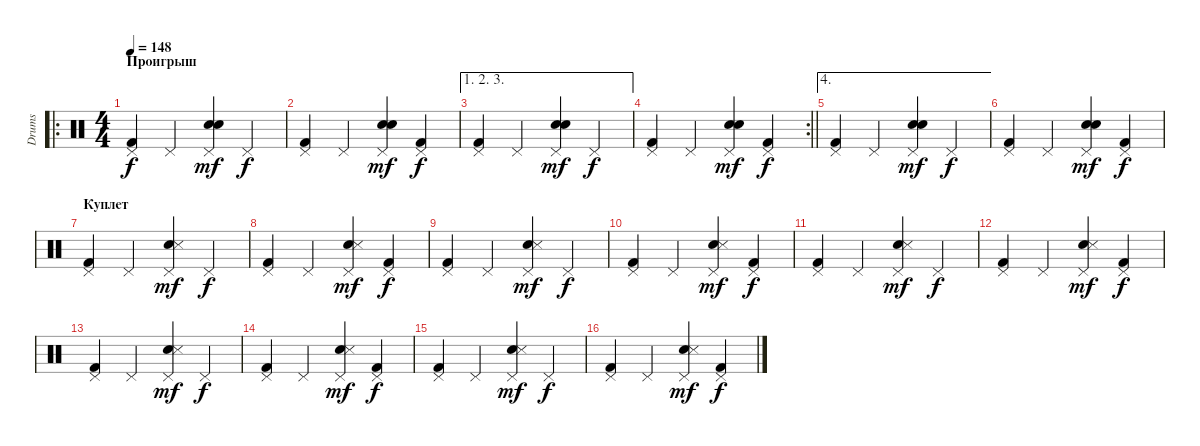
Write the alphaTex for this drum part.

\track ("Drums" "Drums") {instrument percussion}
\staff {score}
\articulation defaults
\ro
\ts (4 4)
\section ("" "Проигрыш")
\tempo 148
\clef neutral
\ks c
("Pedal Hi-Hat (hit)" "Kick (hit) 2").4{dy f} "Pedal Hi-Hat (hit)".4 ("Pedal Hi-Hat (hit)" "Snare (hit) 2" "Electric Snare (hit)").4{dy mf} "Pedal Hi-Hat (hit)".4{dy f} |
("Pedal Hi-Hat (hit)" "Kick (hit) 2").4 "Pedal Hi-Hat (hit)".4 ("Pedal Hi-Hat (hit)" "Snare (hit) 2" "Electric Snare (hit)").4{dy mf} ("Pedal Hi-Hat (hit)" "Kick (hit) 2").4{dy f} |
\ae (1 2 3)
("Pedal Hi-Hat (hit)" "Kick (hit) 2").4 "Pedal Hi-Hat (hit)".4 ("Pedal Hi-Hat (hit)" "Snare (hit) 2" "Electric Snare (hit)").4{dy mf} "Pedal Hi-Hat (hit)".4{dy f} |
\rc 2
\barLineRight lightlight
("Pedal Hi-Hat (hit)" "Kick (hit) 2").4 "Pedal Hi-Hat (hit)".4 ("Pedal Hi-Hat (hit)" "Snare (hit) 2" "Electric Snare (hit)").4{dy mf} ("Pedal Hi-Hat (hit)" "Kick (hit) 2").4{dy f} |
\ae 4
("Pedal Hi-Hat (hit)" "Kick (hit) 2").4 "Pedal Hi-Hat (hit)".4 ("Pedal Hi-Hat (hit)" "Snare (hit) 2" "Electric Snare (hit)").4{dy mf} "Pedal Hi-Hat (hit)".4{dy f} |
("Pedal Hi-Hat (hit)" "Kick (hit) 2").4 "Pedal Hi-Hat (hit)".4 ("Pedal Hi-Hat (hit)" "Snare (hit) 2" "Electric Snare (hit)").4{dy mf} ("Pedal Hi-Hat (hit)" "Kick (hit) 2").4{dy f} |
\section ("" "Куплет")
("Pedal Hi-Hat (hit)" "Kick (hit) 2").4 "Pedal Hi-Hat (hit)".4 ("Pedal Hi-Hat (hit)" "Snare (hit) 2" "Snare (side stick) 3").4{dy mf} "Pedal Hi-Hat (hit)".4{dy f} |
("Pedal Hi-Hat (hit)" "Kick (hit) 2").4 "Pedal Hi-Hat (hit)".4 ("Pedal Hi-Hat (hit)" "Snare (hit) 2" "Snare (side stick) 3").4{dy mf} ("Pedal Hi-Hat (hit)" "Kick (hit) 2").4{dy f} |
("Pedal Hi-Hat (hit)" "Kick (hit) 2").4 "Pedal Hi-Hat (hit)".4 ("Pedal Hi-Hat (hit)" "Snare (hit) 2" "Snare (side stick) 3").4{dy mf} "Pedal Hi-Hat (hit)".4{dy f} |
("Pedal Hi-Hat (hit)" "Kick (hit) 2").4 "Pedal Hi-Hat (hit)".4 ("Pedal Hi-Hat (hit)" "Snare (hit) 2" "Snare (side stick) 3").4{dy mf} ("Pedal Hi-Hat (hit)" "Kick (hit) 2").4{dy f} |
("Pedal Hi-Hat (hit)" "Kick (hit) 2").4 "Pedal Hi-Hat (hit)".4 ("Pedal Hi-Hat (hit)" "Snare (hit) 2" "Snare (side stick) 3").4{dy mf} "Pedal Hi-Hat (hit)".4{dy f} |
("Pedal Hi-Hat (hit)" "Kick (hit) 2").4 "Pedal Hi-Hat (hit)".4 ("Pedal Hi-Hat (hit)" "Snare (hit) 2" "Snare (side stick) 3").4{dy mf} ("Pedal Hi-Hat (hit)" "Kick (hit) 2").4{dy f} |
("Pedal Hi-Hat (hit)" "Kick (hit) 2").4 "Pedal Hi-Hat (hit)".4 ("Pedal Hi-Hat (hit)" "Snare (hit) 2" "Snare (side stick) 3").4{dy mf} "Pedal Hi-Hat (hit)".4{dy f} |
("Pedal Hi-Hat (hit)" "Kick (hit) 2").4 "Pedal Hi-Hat (hit)".4 ("Pedal Hi-Hat (hit)" "Snare (hit) 2" "Snare (side stick) 3").4{dy mf} ("Pedal Hi-Hat (hit)" "Kick (hit) 2").4{dy f} |
("Pedal Hi-Hat (hit)" "Kick (hit) 2").4 "Pedal Hi-Hat (hit)".4 ("Pedal Hi-Hat (hit)" "Snare (hit) 2" "Snare (side stick) 3").4{dy mf} "Pedal Hi-Hat (hit)".4{dy f} |
("Pedal Hi-Hat (hit)" "Kick (hit) 2").4 "Pedal Hi-Hat (hit)".4 ("Pedal Hi-Hat (hit)" "Snare (hit) 2" "Snare (side stick) 3").4{dy mf} ("Pedal Hi-Hat (hit)" "Kick (hit) 2").4{dy f}
